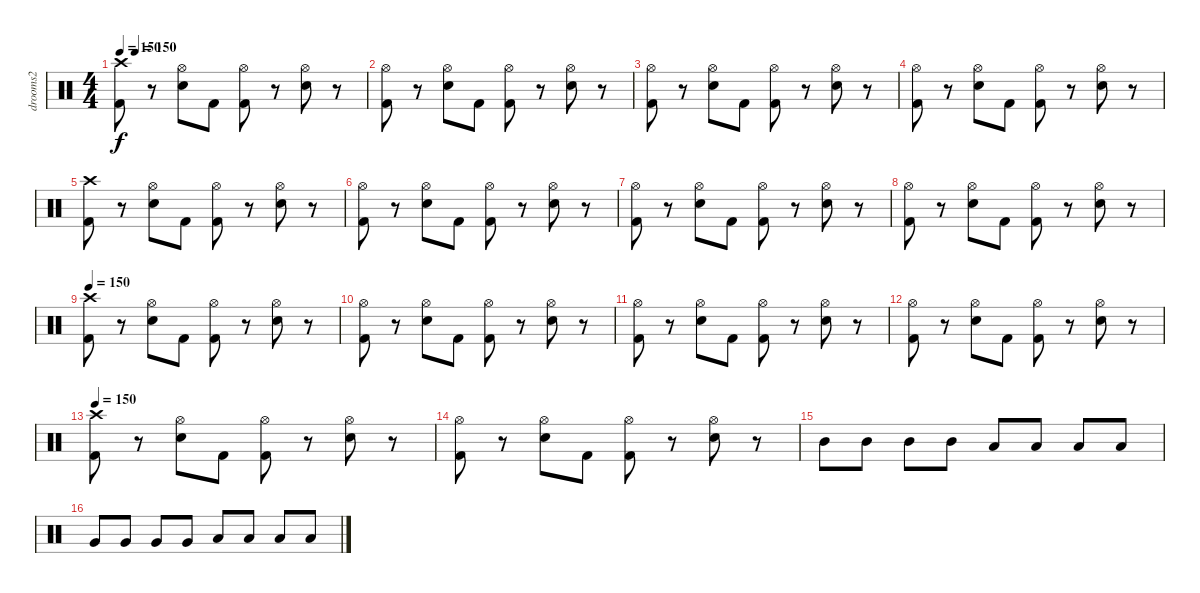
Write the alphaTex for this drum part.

\track ("drooms2" "drooms2") {instrument percussion}
\staff {score}
\articulation defaults
\ts (4 4)
\tempo 150
\tempo (150 0.0625)
\clef neutral
\ks c
("Kick (hit) 2" "Crash high (hit)").8{dy f} r.8 ("Hi-Hat (open)" "Snare (hit) 2").8 "Kick (hit) 2".8 ("Hi-Hat (open)" "Kick (hit) 2").8 r.8 ("Hi-Hat (open)" "Snare (hit) 2").8 r.8 |
("Kick (hit) 2" "Hi-Hat (open)").8 r.8 ("Snare (hit) 2" "Hi-Hat (open)").8 "Kick (hit) 2".8 ("Kick (hit) 2" "Hi-Hat (open)").8 r.8 ("Snare (hit) 2" "Hi-Hat (open)").8 r.8 |
("Kick (hit) 2" "Hi-Hat (open)").8 r.8 ("Snare (hit) 2" "Hi-Hat (open)").8 "Kick (hit) 2".8 ("Kick (hit) 2" "Hi-Hat (open)").8 r.8 ("Snare (hit) 2" "Hi-Hat (open)").8 r.8 |
("Kick (hit) 2" "Hi-Hat (open)").8 r.8 ("Snare (hit) 2" "Hi-Hat (open)").8 "Kick (hit) 2".8 ("Kick (hit) 2" "Hi-Hat (open)").8 r.8 ("Snare (hit) 2" "Hi-Hat (open)").8 r.8 |
("Kick (hit) 2" "Crash high (hit)").8 r.8 ("Hi-Hat (open)" "Snare (hit) 2").8 "Kick (hit) 2".8 ("Hi-Hat (open)" "Kick (hit) 2").8 r.8 ("Hi-Hat (open)" "Snare (hit) 2").8 r.8 |
("Kick (hit) 2" "Hi-Hat (open)").8 r.8 ("Snare (hit) 2" "Hi-Hat (open)").8 "Kick (hit) 2".8 ("Kick (hit) 2" "Hi-Hat (open)").8 r.8 ("Snare (hit) 2" "Hi-Hat (open)").8 r.8 |
("Kick (hit) 2" "Hi-Hat (open)").8 r.8 ("Snare (hit) 2" "Hi-Hat (open)").8 "Kick (hit) 2".8 ("Kick (hit) 2" "Hi-Hat (open)").8 r.8 ("Snare (hit) 2" "Hi-Hat (open)").8 r.8 |
("Kick (hit) 2" "Hi-Hat (open)").8 r.8 ("Snare (hit) 2" "Hi-Hat (open)").8 "Kick (hit) 2".8 ("Kick (hit) 2" "Hi-Hat (open)").8 r.8 ("Snare (hit) 2" "Hi-Hat (open)").8 r.8 |
\tempo 150
("Kick (hit) 2" "Crash high (hit)").8 r.8 ("Hi-Hat (open)" "Snare (hit) 2").8 "Kick (hit) 2".8 ("Hi-Hat (open)" "Kick (hit) 2").8 r.8 ("Hi-Hat (open)" "Snare (hit) 2").8 r.8 |
("Kick (hit) 2" "Hi-Hat (open)").8 r.8 ("Snare (hit) 2" "Hi-Hat (open)").8 "Kick (hit) 2".8 ("Kick (hit) 2" "Hi-Hat (open)").8 r.8 ("Snare (hit) 2" "Hi-Hat (open)").8 r.8 |
("Kick (hit) 2" "Hi-Hat (open)").8 r.8 ("Snare (hit) 2" "Hi-Hat (open)").8 "Kick (hit) 2".8 ("Kick (hit) 2" "Hi-Hat (open)").8 r.8 ("Snare (hit) 2" "Hi-Hat (open)").8 r.8 |
("Kick (hit) 2" "Hi-Hat (open)").8 r.8 ("Snare (hit) 2" "Hi-Hat (open)").8 "Kick (hit) 2".8 ("Kick (hit) 2" "Hi-Hat (open)").8 r.8 ("Snare (hit) 2" "Hi-Hat (open)").8 r.8 |
\tempo 150
("Kick (hit) 2" "Crash high (hit)").8 r.8 ("Hi-Hat (open)" "Snare (hit) 2").8 "Kick (hit) 2".8 ("Hi-Hat (open)" "Kick (hit) 2").8 r.8 ("Hi-Hat (open)" "Snare (hit) 2").8 r.8 |
("Kick (hit) 2" "Hi-Hat (open)").8 r.8 ("Snare (hit) 2" "Hi-Hat (open)").8 "Kick (hit) 2".8 ("Kick (hit) 2" "Hi-Hat (open)").8 r.8 ("Snare (hit) 2" "Hi-Hat (open)").8 r.8 |
"Mid Tom (hit)".8 "Mid Tom (hit)".8 "Mid Tom (hit)".8 "Mid Tom (hit)".8 "Low Tom (hit)".8 "Low Tom (hit)".8 "Low Tom (hit)".8 "Low Tom (hit)".8 |
"Very Low Tom (hit)".8 "Very Low Tom (hit)".8 "Very Low Tom (hit)".8 "Very Low Tom (hit)".8 "Low Floor Tom (hit)".8 "Low Floor Tom (hit)".8 "Low Floor Tom (hit)".8 "Low Floor Tom (hit)".8
